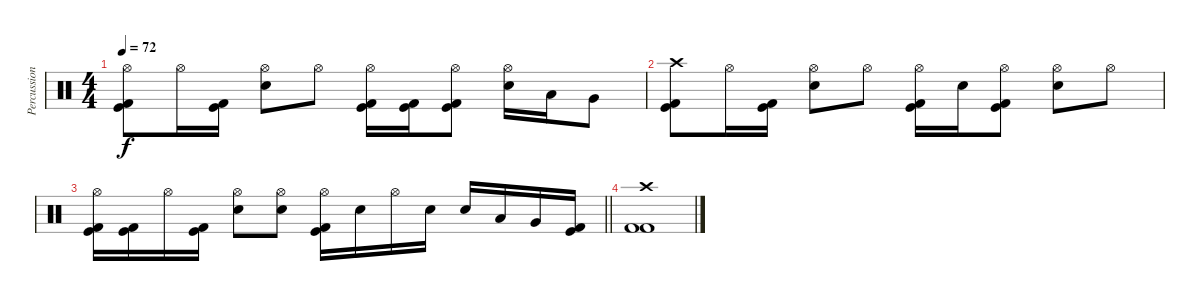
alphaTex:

\track ("Percussion" "Percussion") {instrument percussion}
\staff {score}
\articulation defaults
\ts (4 4)
\tempo 72
\clef neutral
\ks c
("Hi-Hat (open)" "Kick (hit)" "Kick (hit) 2").8{dy f} "Hi-Hat (open)".16 ("Kick (hit)" "Kick (hit) 2").16 ("Hi-Hat (open)" "Electric Snare (hit)").8 "Hi-Hat (open)".8 ("Hi-Hat (open)" "Kick (hit)" "Kick (hit) 2").16 ("Kick (hit)" "Kick (hit) 2").16 ("Hi-Hat (open)" "Kick (hit)" "Kick (hit) 2").8 ("Hi-Hat (open)" "Electric Snare (hit)").16 "Low Tom (hit)".16 "Very Low Tom (hit)".8 |
("Crash high (hit)" "Kick (hit)" "Kick (hit) 2").8 "Hi-Hat (open)".16 ("Kick (hit)" "Kick (hit) 2").16 ("Hi-Hat (open)" "Electric Snare (hit)").8 "Hi-Hat (open)".8 ("Hi-Hat (open)" "Kick (hit)" "Kick (hit) 2").16 "Electric Snare (hit)".16 ("Hi-Hat (open)" "Kick (hit)" "Kick (hit) 2").8 ("Hi-Hat (open)" "Electric Snare (hit)").8 "Hi-Hat (open)".8 |
\barLineRight lightlight
("Hi-Hat (open)" "Kick (hit)" "Kick (hit) 2").16 ("Kick (hit)" "Kick (hit) 2").16 "Hi-Hat (open)".16 ("Kick (hit)" "Kick (hit) 2").16 ("Hi-Hat (open)" "Electric Snare (hit)").8 ("Hi-Hat (open)" "Electric Snare (hit)").8 ("Hi-Hat (open)" "Kick (hit)" "Kick (hit) 2").16 "Electric Snare (hit)".16 "Hi-Hat (open)".16 "Electric Snare (hit)".16 "Electric Snare (hit)".16 "Low Tom (hit)".16 "Very Low Tom (hit)".16 ("Kick (hit)" "Kick (hit) 2").16 |
("Crash high (hit)" "Kick (hit) 2" "Kick (hit) 2").1
